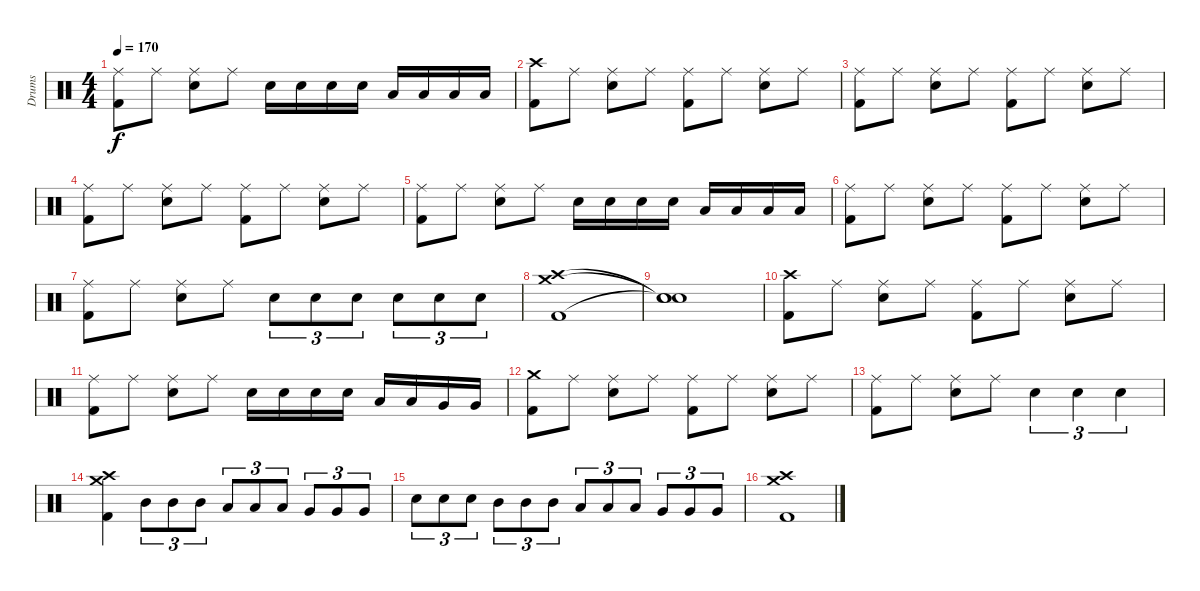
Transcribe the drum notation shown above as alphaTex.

\track ("Drums" "Drums") {instrument percussion}
\staff {score}
\articulation defaults
\ts (4 4)
\tempo 170
\clef neutral
\ks c
("Ride (middle)" "Kick (hit) 2").8{dy f} "Ride (middle)".8 ("Ride (middle)" "Electric Snare (hit)").8 "Ride (middle)".8 "Electric Snare (hit)".16 "Electric Snare (hit)".16 "Electric Snare (hit)".16 "Electric Snare (hit)".16 "Low Tom (hit)".16 "Low Tom (hit)".16 "Low Tom (hit)".16 "Low Tom (hit)".16 |
("Crash high (hit)" "Kick (hit) 2").8 "Ride (middle)".8 ("Ride (middle)" "Electric Snare (hit)").8 "Ride (middle)".8 ("Ride (middle)" "Kick (hit) 2").8 "Ride (middle)".8 ("Ride (middle)" "Electric Snare (hit)").8 "Ride (middle)".8 |
("Ride (middle)" "Kick (hit) 2").8 "Ride (middle)".8 ("Ride (middle)" "Electric Snare (hit)").8 "Ride (middle)".8 ("Ride (middle)" "Kick (hit) 2").8 "Ride (middle)".8 ("Ride (middle)" "Electric Snare (hit)").8 "Ride (middle)".8 |
("Ride (middle)" "Kick (hit) 2").8 "Ride (middle)".8 ("Ride (middle)" "Electric Snare (hit)").8 "Ride (middle)".8 ("Ride (middle)" "Kick (hit) 2").8 "Ride (middle)".8 ("Ride (middle)" "Electric Snare (hit)").8 "Ride (middle)".8 |
("Ride (middle)" "Kick (hit) 2").8 "Ride (middle)".8 ("Ride (middle)" "Electric Snare (hit)").8 "Ride (middle)".8 "Electric Snare (hit)".16 "Electric Snare (hit)".16 "Electric Snare (hit)".16 "Electric Snare (hit)".16 "Low Tom (hit)".16 "Low Tom (hit)".16 "Low Tom (hit)".16 "Low Tom (hit)".16 |
("Ride (middle)" "Kick (hit) 2").8 "Ride (middle)".8 ("Ride (middle)" "Electric Snare (hit)").8 "Ride (middle)".8 ("Ride (middle)" "Kick (hit) 2").8 "Ride (middle)".8 ("Ride (middle)" "Electric Snare (hit)").8 "Ride (middle)".8 |
("Ride (middle)" "Kick (hit) 2").8 "Ride (middle)".8 ("Ride (middle)" "Electric Snare (hit)").8 "Ride (middle)".8 "Electric Snare (hit)".8{tu (3 2)} "Electric Snare (hit)".8{tu (3 2)} "Electric Snare (hit)".8{tu (3 2)} "Electric Snare (hit)".8{tu (3 2)} "Electric Snare (hit)".8{tu (3 2)} "Electric Snare (hit)".8{tu (3 2)} |
("Crash high (hit)" "Crash medium (hit)" "Kick (hit) 2").1 |
("Snare (hit)"{t} "Snare (hit)"{t} "Snare (hit)"{t}).1 |
("Crash high (hit)" "Kick (hit) 2").8 "Ride (middle)".8 ("Ride (middle)" "Electric Snare (hit)").8 "Ride (middle)".8 ("Ride (middle)" "Kick (hit) 2").8 "Ride (middle)".8 ("Ride (middle)" "Electric Snare (hit)").8 "Ride (middle)".8 |
("Ride (middle)" "Kick (hit) 2").8 "Ride (middle)".8 ("Ride (middle)" "Electric Snare (hit)").8 "Ride (middle)".8 "Electric Snare (hit)".16 "Electric Snare (hit)".16 "Electric Snare (hit)".16 "Electric Snare (hit)".16 "Low Tom (hit)".16 "Low Tom (hit)".16 "Very Low Tom (hit)".16 "Very Low Tom (hit)".16 |
("Crash medium (hit)" "Kick (hit) 2").8 "Ride (middle)".8 ("Ride (middle)" "Electric Snare (hit)").8 "Ride (middle)".8 ("Ride (middle)" "Kick (hit) 2").8 "Ride (middle)".8 ("Ride (middle)" "Electric Snare (hit)").8 "Ride (middle)".8 |
("Ride (middle)" "Kick (hit) 2").8 "Ride (middle)".8 ("Ride (middle)" "Electric Snare (hit)").8 "Ride (middle)".8 "Electric Snare (hit)".4{tu (3 2)} "Electric Snare (hit)".4{tu (3 2)} "Electric Snare (hit)".4{tu (3 2)} |
("Crash medium (hit)" "Crash high (hit)" "Kick (hit) 2").4 "Mid Tom (hit)".8{tu (3 2)} "Mid Tom (hit)".8{tu (3 2)} "Mid Tom (hit)".8{tu (3 2)} "Low Tom (hit)".8{tu (3 2)} "Low Tom (hit)".8{tu (3 2)} "Low Tom (hit)".8{tu (3 2)} "Very Low Tom (hit)".8{tu (3 2)} "Very Low Tom (hit)".8{tu (3 2)} "Very Low Tom (hit)".8{tu (3 2)} |
"Electric Snare (hit)".8{tu (3 2)} "Electric Snare (hit)".8{tu (3 2)} "Electric Snare (hit)".8{tu (3 2)} "Mid Tom (hit)".8{tu (3 2)} "Mid Tom (hit)".8{tu (3 2)} "Mid Tom (hit)".8{tu (3 2)} "Low Tom (hit)".8{tu (3 2)} "Low Tom (hit)".8{tu (3 2)} "Low Tom (hit)".8{tu (3 2)} "Very Low Tom (hit)".8{tu (3 2)} "Very Low Tom (hit)".8{tu (3 2)} "Very Low Tom (hit)".8{tu (3 2)} |
("Kick (hit) 2" "Crash medium (hit)" "Crash high (hit)").1
